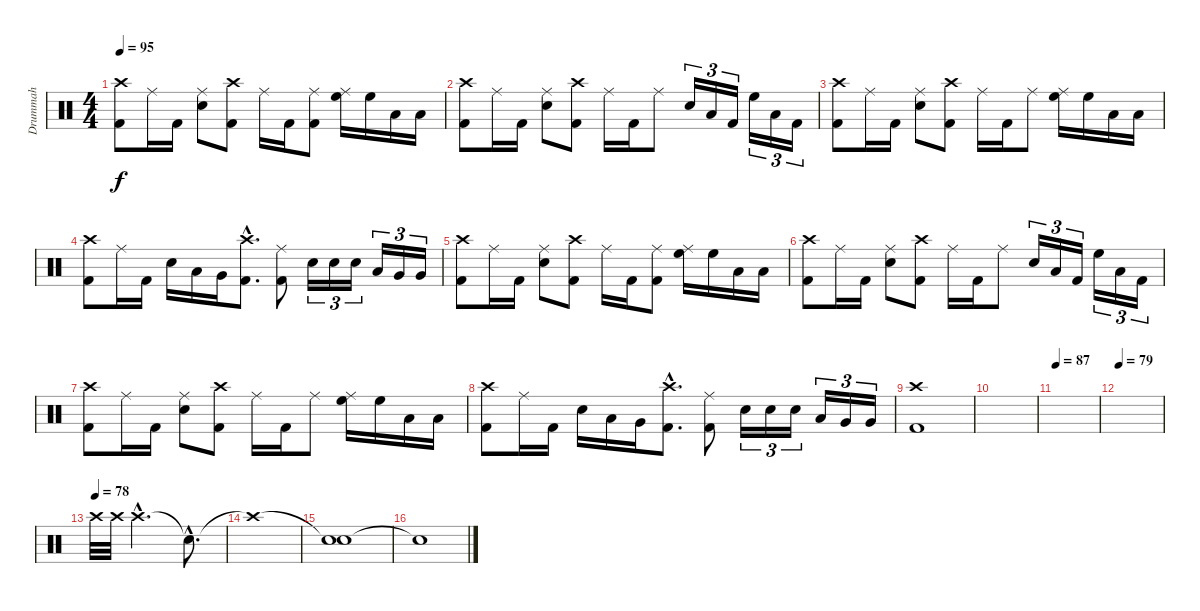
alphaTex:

\track ("Drummah" "Drummah") {instrument percussion}
\staff {score}
\articulation defaults
\ts (4 4)
\tempo 95
\clef neutral
\ks c
("Crash high (hit)" "Kick (hit) 2").8{dy f} "Ride (middle)".16 "Kick (hit) 2".16 ("Ride (middle)" "Snare (hit) 2").8 ("Crash high (hit)" "Kick (hit) 2").8 "Ride (middle)".16 "Kick (hit) 2".16 ("Ride (middle)" "Kick (hit) 2").8 ("Ride (middle)" "High Floor Tom (hit)").16 "High Floor Tom (hit)".16 "Low Tom (hit)".16 "Low Tom (hit)".16 |
("Crash high (hit)" "Kick (hit) 2").8 "Ride (middle)".16 "Kick (hit) 2".16 ("Ride (middle)" "Snare (hit) 2").8 ("Crash high (hit)" "Kick (hit) 2").8 "Ride (middle)".16 "Kick (hit) 2".16 "Ride (middle)".8 "Snare (hit) 2".16{tu (3 2)} "Low Tom (hit)".16{tu (3 2)} "Kick (hit) 2".16{tu (3 2)} "High Floor Tom (hit)".16{tu (3 2)} "Low Tom (hit)".16{tu (3 2)} "Kick (hit) 2".16{tu (3 2)} |
("Crash high (hit)" "Kick (hit) 2").8 "Ride (middle)".16 "Kick (hit) 2".16 ("Ride (middle)" "Snare (hit) 2").8 ("Crash high (hit)" "Kick (hit) 2").8 "Ride (middle)".16 "Kick (hit) 2".16 "Ride (middle)".8 ("Ride (middle)" "High Floor Tom (hit)").16 "High Floor Tom (hit)".16 "Low Tom (hit)".16 "Low Tom (hit)".16 |
("Crash high (hit)" "Kick (hit) 2").8 "Ride (middle)".16 "Kick (hit) 2".16 "Snare (hit) 2".16 "Low Tom (hit)".16 "Very Low Tom (hit)".16 ("Crash high (hit)"{hac} "Kick (hit) 2"{hac}).8{d} ("Ride (middle)" "Kick (hit) 2").8 "Snare (hit) 2".16{tu (3 2)} "Snare (hit) 2".16{tu (3 2)} "Snare (hit) 2".16{tu (3 2)} "Low Tom (hit)".16{tu (3 2)} "Very Low Tom (hit)".16{tu (3 2)} "Very Low Tom (hit)".16{tu (3 2)} |
("Crash high (hit)" "Kick (hit) 2").8 "Ride (middle)".16 "Kick (hit) 2".16 ("Ride (middle)" "Snare (hit) 2").8 ("Crash high (hit)" "Kick (hit) 2").8 "Ride (middle)".16 "Kick (hit) 2".16 ("Ride (middle)" "Kick (hit) 2").8 ("Ride (middle)" "High Floor Tom (hit)").16 "High Floor Tom (hit)".16 "Low Tom (hit)".16 "Low Tom (hit)".16 |
("Crash high (hit)" "Kick (hit) 2").8 "Ride (middle)".16 "Kick (hit) 2".16 ("Ride (middle)" "Snare (hit) 2").8 ("Crash high (hit)" "Kick (hit) 2").8 "Ride (middle)".16 "Kick (hit) 2".16 "Ride (middle)".8 "Snare (hit) 2".16{tu (3 2)} "Low Tom (hit)".16{tu (3 2)} "Kick (hit) 2".16{tu (3 2)} "High Floor Tom (hit)".16{tu (3 2)} "Low Tom (hit)".16{tu (3 2)} "Kick (hit) 2".16{tu (3 2)} |
("Crash high (hit)" "Kick (hit) 2").8 "Ride (middle)".16 "Kick (hit) 2".16 ("Ride (middle)" "Snare (hit) 2").8 ("Crash high (hit)" "Kick (hit) 2").8 "Ride (middle)".16 "Kick (hit) 2".16 "Ride (middle)".8 ("Ride (middle)" "High Floor Tom (hit)").16 "High Floor Tom (hit)".16 "Low Tom (hit)".16 "Low Tom (hit)".16 |
("Crash high (hit)" "Kick (hit) 2").8 "Ride (middle)".16 "Kick (hit) 2".16 "Snare (hit) 2".16 "Low Tom (hit)".16 "Very Low Tom (hit)".16 ("Crash high (hit)"{hac} "Kick (hit) 2"{hac}).8{d} ("Ride (middle)" "Kick (hit) 2").8 "Snare (hit) 2".16{tu (3 2)} "Snare (hit) 2".16{tu (3 2)} "Snare (hit) 2".16{tu (3 2)} "Low Tom (hit)".16{tu (3 2)} "Very Low Tom (hit)".16{tu (3 2)} "Very Low Tom (hit)".16{tu (3 2)} |
("Crash high (hit)" "Kick (hit) 2").1 |
|
\tempo 87
|
\tempo 79
|
\tempo (78)
"Crash high (hit)".32 "Crash high (hit)".32 "Crash high (hit)"{hac}.2{d} "Snare (hit)"{hac t}.8{d} |
"Crash high (hit)"{t}.1 |
("Snare (hit)"{t} "Snare (hit)").1 |
"Snare (hit)"{t}.1
